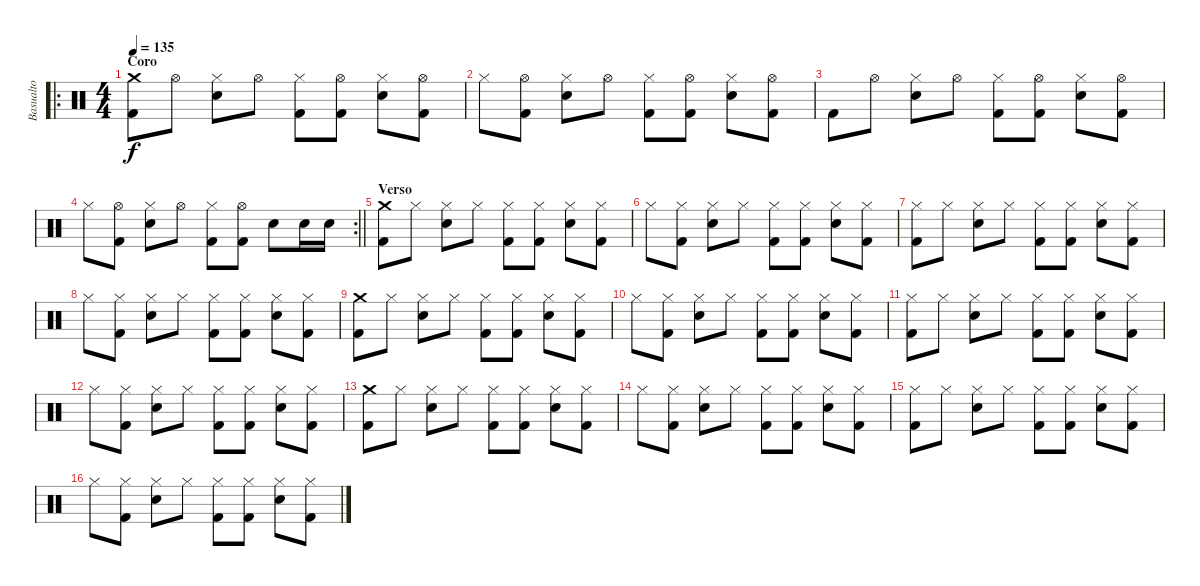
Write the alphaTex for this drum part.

\track ("Basualto" "Basualto") {instrument percussion}
\staff {score}
\articulation defaults
\ro
\ts (4 4)
\section ("" "Coro")
\tempo 135
\clef neutral
\ks c
("Crash medium (hit)" "Kick (hit) 2").8{dy f} "Hi-Hat (open)".8 ("Hi-Hat (closed)" "Snare (hit) 2").8 "Hi-Hat (open)".8 ("Hi-Hat (closed)" "Kick (hit) 2").8 ("Hi-Hat (open)" "Kick (hit) 2").8 ("Hi-Hat (closed)" "Snare (hit) 2").8 ("Hi-Hat (open)" "Kick (hit) 2").8 |
"Hi-Hat (closed)".8 ("Hi-Hat (open)" "Kick (hit) 2").8 ("Hi-Hat (closed)" "Snare (hit) 2").8 "Hi-Hat (open)".8 ("Hi-Hat (closed)" "Kick (hit) 2").8 ("Hi-Hat (open)" "Kick (hit) 2").8 ("Hi-Hat (closed)" "Snare (hit) 2").8 ("Hi-Hat (open)" "Kick (hit) 2").8 |
"Kick (hit) 2".8 "Hi-Hat (open)".8 ("Hi-Hat (closed)" "Snare (hit) 2").8 "Hi-Hat (open)".8 ("Hi-Hat (closed)" "Kick (hit) 2").8 ("Hi-Hat (open)" "Kick (hit) 2").8 ("Hi-Hat (closed)" "Snare (hit) 2").8 ("Hi-Hat (open)" "Kick (hit) 2").8 |
\rc 2
\barLineRight lightlight "Hi-Hat (closed)".8
("Hi-Hat (open)" "Kick (hit) 2").8 ("Hi-Hat (closed)" "Snare (hit) 2").8 "Hi-Hat (open)".8 ("Hi-Hat (closed)" "Kick (hit) 2").8 ("Hi-Hat (open)" "Kick (hit) 2").8 "Snare (hit) 2".8 "Snare (hit) 2".16 "Snare (hit) 2".16 |
\section ("" "Verso")
("Crash medium (hit)" "Kick (hit) 2").8 "Hi-Hat (closed)".8 ("Hi-Hat (closed)" "Snare (hit) 2").8 "Hi-Hat (closed)".8 ("Hi-Hat (closed)" "Kick (hit) 2").8 ("Hi-Hat (closed)" "Kick (hit) 2").8 ("Hi-Hat (closed)" "Snare (hit) 2").8 ("Hi-Hat (closed)" "Kick (hit) 2").8 |
"Hi-Hat (closed)".8 ("Hi-Hat (closed)" "Kick (hit) 2").8 ("Hi-Hat (closed)" "Snare (hit) 2").8 "Hi-Hat (closed)".8 ("Hi-Hat (closed)" "Kick (hit) 2").8 ("Hi-Hat (closed)" "Kick (hit) 2").8 ("Hi-Hat (closed)" "Snare (hit) 2").8 ("Hi-Hat (closed)" "Kick (hit) 2").8 |
("Hi-Hat (closed)" "Kick (hit) 2").8 "Hi-Hat (closed)".8 ("Hi-Hat (closed)" "Snare (hit) 2").8 "Hi-Hat (closed)".8 ("Hi-Hat (closed)" "Kick (hit) 2").8 ("Hi-Hat (closed)" "Kick (hit) 2").8 ("Hi-Hat (closed)" "Snare (hit) 2").8 ("Hi-Hat (closed)" "Kick (hit) 2").8 |
"Hi-Hat (closed)".8 ("Hi-Hat (closed)" "Kick (hit) 2").8 ("Hi-Hat (closed)" "Snare (hit) 2").8 "Hi-Hat (closed)".8 ("Hi-Hat (closed)" "Kick (hit) 2").8 ("Hi-Hat (closed)" "Kick (hit) 2").8 ("Hi-Hat (closed)" "Snare (hit) 2").8 ("Hi-Hat (closed)" "Kick (hit) 2").8 |
("Crash medium (hit)" "Kick (hit) 2").8 "Hi-Hat (closed)".8 ("Hi-Hat (closed)" "Snare (hit) 2").8 "Hi-Hat (closed)".8 ("Hi-Hat (closed)" "Kick (hit) 2").8 ("Hi-Hat (closed)" "Kick (hit) 2").8 ("Hi-Hat (closed)" "Snare (hit) 2").8 ("Hi-Hat (closed)" "Kick (hit) 2").8 |
"Hi-Hat (closed)".8 ("Hi-Hat (closed)" "Kick (hit) 2").8 ("Hi-Hat (closed)" "Snare (hit) 2").8 "Hi-Hat (closed)".8 ("Hi-Hat (closed)" "Kick (hit) 2").8 ("Hi-Hat (closed)" "Kick (hit) 2").8 ("Hi-Hat (closed)" "Snare (hit) 2").8 ("Hi-Hat (closed)" "Kick (hit) 2").8 |
("Hi-Hat (closed)" "Kick (hit) 2").8 "Hi-Hat (closed)".8 ("Hi-Hat (closed)" "Snare (hit) 2").8 "Hi-Hat (closed)".8 ("Hi-Hat (closed)" "Kick (hit) 2").8 ("Hi-Hat (closed)" "Kick (hit) 2").8 ("Hi-Hat (closed)" "Snare (hit) 2").8 ("Hi-Hat (closed)" "Kick (hit) 2").8 |
"Hi-Hat (closed)".8 ("Hi-Hat (closed)" "Kick (hit) 2").8 ("Hi-Hat (closed)" "Snare (hit) 2").8 "Hi-Hat (closed)".8 ("Hi-Hat (closed)" "Kick (hit) 2").8 ("Hi-Hat (closed)" "Kick (hit) 2").8 ("Hi-Hat (closed)" "Snare (hit) 2").8 ("Hi-Hat (closed)" "Kick (hit) 2").8 |
("Crash medium (hit)" "Kick (hit) 2").8 "Hi-Hat (closed)".8 ("Hi-Hat (closed)" "Snare (hit) 2").8 "Hi-Hat (closed)".8 ("Hi-Hat (closed)" "Kick (hit) 2").8 ("Hi-Hat (closed)" "Kick (hit) 2").8 ("Hi-Hat (closed)" "Snare (hit) 2").8 ("Hi-Hat (closed)" "Kick (hit) 2").8 |
"Hi-Hat (closed)".8 ("Hi-Hat (closed)" "Kick (hit) 2").8 ("Hi-Hat (closed)" "Snare (hit) 2").8 "Hi-Hat (closed)".8 ("Hi-Hat (closed)" "Kick (hit) 2").8 ("Hi-Hat (closed)" "Kick (hit) 2").8 ("Hi-Hat (closed)" "Snare (hit) 2").8 ("Hi-Hat (closed)" "Kick (hit) 2").8 |
("Hi-Hat (closed)" "Kick (hit) 2").8 "Hi-Hat (closed)".8 ("Hi-Hat (closed)" "Snare (hit) 2").8 "Hi-Hat (closed)".8 ("Hi-Hat (closed)" "Kick (hit) 2").8 ("Hi-Hat (closed)" "Kick (hit) 2").8 ("Hi-Hat (closed)" "Snare (hit) 2").8 ("Hi-Hat (closed)" "Kick (hit) 2").8 |
"Hi-Hat (closed)".8 ("Hi-Hat (closed)" "Kick (hit) 2").8 ("Hi-Hat (closed)" "Snare (hit) 2").8 "Hi-Hat (closed)".8 ("Hi-Hat (closed)" "Kick (hit) 2").8 ("Hi-Hat (closed)" "Kick (hit) 2").8 ("Hi-Hat (closed)" "Snare (hit) 2").8 ("Hi-Hat (closed)" "Kick (hit) 2").8
